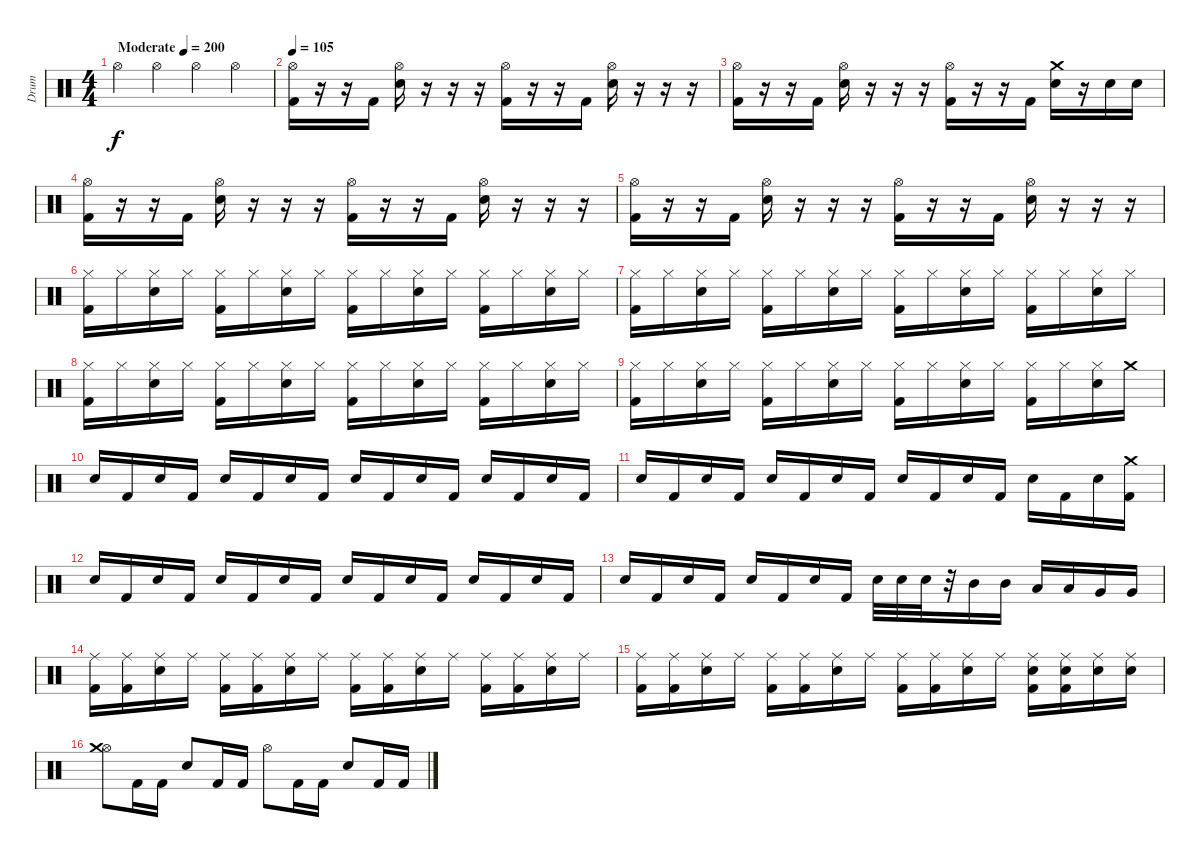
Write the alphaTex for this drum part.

\track ("Drum" "Drum") {instrument percussion}
\staff {score}
\articulation defaults
\ts (4 4)
\tempo (200 "Moderate")
\clef neutral
\ks c "Hi-Hat (open)".4{dy f} "Hi-Hat (open)".4 "Hi-Hat (open)".4 "Hi-Hat (open)".4
|
\tempo 105
("Hi-Hat (open)" "Kick (hit) 2").16 r.16 r.16 "Kick (hit) 2".16 ("Hi-Hat (open)" "Electric Snare (hit)").16 r.16 r.16 r.16 ("Hi-Hat (open)" "Kick (hit) 2").16 r.16 r.16 "Kick (hit) 2".16 ("Hi-Hat (open)" "Electric Snare (hit)").16 r.16 r.16 r.16 |
("Hi-Hat (open)" "Kick (hit) 2").16 r.16 r.16 "Kick (hit) 2".16 ("Hi-Hat (open)" "Electric Snare (hit)").16 r.16 r.16 r.16 ("Hi-Hat (open)" "Kick (hit) 2").16 r.16 r.16 "Kick (hit) 2".16 ("Crash medium (hit)" "Electric Snare (hit)").16 r.16 "Electric Snare (hit)".16 "Electric Snare (hit)".16 |
("Hi-Hat (open)" "Kick (hit) 2").16 r.16 r.16 "Kick (hit) 2".16 ("Hi-Hat (open)" "Electric Snare (hit)").16 r.16 r.16 r.16 ("Hi-Hat (open)" "Kick (hit) 2").16 r.16 r.16 "Kick (hit) 2".16 ("Hi-Hat (open)" "Electric Snare (hit)").16 r.16 r.16 r.16 |
("Hi-Hat (open)" "Kick (hit) 2").16 r.16 r.16 "Kick (hit) 2".16 ("Hi-Hat (open)" "Electric Snare (hit)").16 r.16 r.16 r.16 ("Hi-Hat (open)" "Kick (hit) 2").16 r.16 r.16 "Kick (hit) 2".16 ("Hi-Hat (open)" "Electric Snare (hit)").16 r.16 r.16 r.16 |
("Hi-Hat (closed)" "Kick (hit) 2").16 "Hi-Hat (closed)".16 ("Hi-Hat (closed)" "Snare (hit) 2").16 "Hi-Hat (closed)".16 ("Hi-Hat (closed)" "Kick (hit) 2").16 "Hi-Hat (closed)".16 ("Hi-Hat (closed)" "Snare (hit) 2").16 "Hi-Hat (closed)".16 ("Hi-Hat (closed)" "Kick (hit) 2").16 "Hi-Hat (closed)".16 ("Hi-Hat (closed)" "Snare (hit) 2").16 "Hi-Hat (closed)".16 ("Hi-Hat (closed)" "Kick (hit) 2").16 "Hi-Hat (closed)".16 ("Hi-Hat (closed)" "Snare (hit) 2").16 "Hi-Hat (closed)".16 |
("Hi-Hat (closed)" "Kick (hit) 2").16 "Hi-Hat (closed)".16 ("Hi-Hat (closed)" "Snare (hit) 2").16 "Hi-Hat (closed)".16 ("Hi-Hat (closed)" "Kick (hit) 2").16 "Hi-Hat (closed)".16 ("Hi-Hat (closed)" "Snare (hit) 2").16 "Hi-Hat (closed)".16 ("Hi-Hat (closed)" "Kick (hit) 2").16 "Hi-Hat (closed)".16 ("Hi-Hat (closed)" "Snare (hit) 2").16 "Hi-Hat (closed)".16 ("Hi-Hat (closed)" "Kick (hit) 2").16 "Hi-Hat (closed)".16 ("Hi-Hat (closed)" "Snare (hit) 2").16 "Hi-Hat (closed)".16 |
("Hi-Hat (closed)" "Kick (hit) 2").16 "Hi-Hat (closed)".16 ("Hi-Hat (closed)" "Snare (hit) 2").16 "Hi-Hat (closed)".16 ("Hi-Hat (closed)" "Kick (hit) 2").16 "Hi-Hat (closed)".16 ("Hi-Hat (closed)" "Snare (hit) 2").16 "Hi-Hat (closed)".16 ("Hi-Hat (closed)" "Kick (hit) 2").16 "Hi-Hat (closed)".16 ("Hi-Hat (closed)" "Snare (hit) 2").16 "Hi-Hat (closed)".16 ("Hi-Hat (closed)" "Kick (hit) 2").16 "Hi-Hat (closed)".16 ("Hi-Hat (closed)" "Snare (hit) 2").16 "Hi-Hat (closed)".16 |
("Hi-Hat (closed)" "Kick (hit) 2").16 "Hi-Hat (closed)".16 ("Hi-Hat (closed)" "Snare (hit) 2").16 "Hi-Hat (closed)".16 ("Hi-Hat (closed)" "Kick (hit) 2").16 "Hi-Hat (closed)".16 ("Hi-Hat (closed)" "Snare (hit) 2").16 "Hi-Hat (closed)".16 ("Hi-Hat (closed)" "Kick (hit) 2").16 "Hi-Hat (closed)".16 ("Hi-Hat (closed)" "Snare (hit) 2").16 "Hi-Hat (closed)".16 ("Hi-Hat (closed)" "Kick (hit) 2").16 "Hi-Hat (closed)".16 ("Hi-Hat (closed)" "Snare (hit) 2").16 "Crash medium (hit)".16 |
"Electric Snare (hit)".16 "Kick (hit) 2".16 "Electric Snare (hit)".16 "Kick (hit) 2".16 "Electric Snare (hit)".16 "Kick (hit) 2".16 "Electric Snare (hit)".16 "Kick (hit) 2".16 "Electric Snare (hit)".16 "Kick (hit) 2".16 "Electric Snare (hit)".16 "Kick (hit) 2".16 "Electric Snare (hit)".16 "Kick (hit) 2".16 "Electric Snare (hit)".16 "Kick (hit) 2".16 |
"Electric Snare (hit)".16 "Kick (hit) 2".16 "Electric Snare (hit)".16 "Kick (hit) 2".16 "Electric Snare (hit)".16 "Kick (hit) 2".16 "Electric Snare (hit)".16 "Kick (hit) 2".16 "Electric Snare (hit)".16 "Kick (hit) 2".16 "Electric Snare (hit)".16 "Kick (hit) 2".16 "Electric Snare (hit)".16 "Kick (hit) 2".16 "Electric Snare (hit)".16 ("Crash medium (hit)" "Kick (hit) 2").16 |
"Electric Snare (hit)".16 "Kick (hit) 2".16 "Electric Snare (hit)".16 "Kick (hit) 2".16 "Electric Snare (hit)".16 "Kick (hit) 2".16 "Electric Snare (hit)".16 "Kick (hit) 2".16 "Electric Snare (hit)".16 "Kick (hit) 2".16 "Electric Snare (hit)".16 "Kick (hit) 2".16 "Electric Snare (hit)".16 "Kick (hit) 2".16 "Electric Snare (hit)".16 "Kick (hit) 2".16 |
"Electric Snare (hit)".16 "Kick (hit) 2".16 "Electric Snare (hit)".16 "Kick (hit) 2".16 "Electric Snare (hit)".16 "Kick (hit) 2".16 "Electric Snare (hit)".16 "Kick (hit) 2".16 "Electric Snare (hit)".32 "Electric Snare (hit)".32 "Electric Snare (hit)".32 r.32 "Mid Tom (hit)".16 "Mid Tom (hit)".16 "Low Tom (hit)".16 "Low Tom (hit)".16 "Very Low Tom (hit)".16 "Very Low Tom (hit)".16 |
("Ride (middle)" "Kick (hit) 2").16 ("Ride (middle)" "Kick (hit) 2").16 ("Ride (middle)" "Electric Snare (hit)").16 "Ride (middle)".16 ("Ride (middle)" "Kick (hit) 2").16 ("Ride (middle)" "Kick (hit) 2").16 ("Ride (middle)" "Electric Snare (hit)").16 "Ride (middle)".16 ("Ride (middle)" "Kick (hit) 2").16 ("Ride (middle)" "Kick (hit) 2").16 ("Ride (middle)" "Electric Snare (hit)").16 "Ride (middle)".16 ("Ride (middle)" "Kick (hit) 2").16 ("Ride (middle)" "Kick (hit) 2").16 ("Ride (middle)" "Electric Snare (hit)").16 "Ride (middle)".16 |
("Ride (middle)" "Kick (hit) 2").16 ("Ride (middle)" "Kick (hit) 2").16 ("Ride (middle)" "Electric Snare (hit)").16 "Ride (middle)".16 ("Ride (middle)" "Kick (hit) 2").16 ("Ride (middle)" "Kick (hit) 2").16 ("Ride (middle)" "Electric Snare (hit)").16 "Ride (middle)".16 ("Ride (middle)" "Kick (hit) 2").16 ("Ride (middle)" "Kick (hit) 2").16 ("Ride (middle)" "Electric Snare (hit)").16 "Ride (middle)".16 ("Ride (middle)" "Electric Snare (hit)" "Kick (hit) 2").16 ("Ride (middle)" "Electric Snare (hit)" "Kick (hit) 2").16 ("Ride (middle)" "Electric Snare (hit)").16 ("Ride (middle)" "Electric Snare (hit)").16 |
("Hi-Hat (open)" "Crash medium (hit)").8 "Kick (hit) 2".16 "Kick (hit) 2".16 "Snare (hit) 2".8 "Kick (hit) 2".16 "Kick (hit) 2".16 "Hi-Hat (open)".8 "Kick (hit) 2".16 "Kick (hit) 2".16 "Snare (hit) 2".8 "Kick (hit) 2".16 "Kick (hit) 2".16
